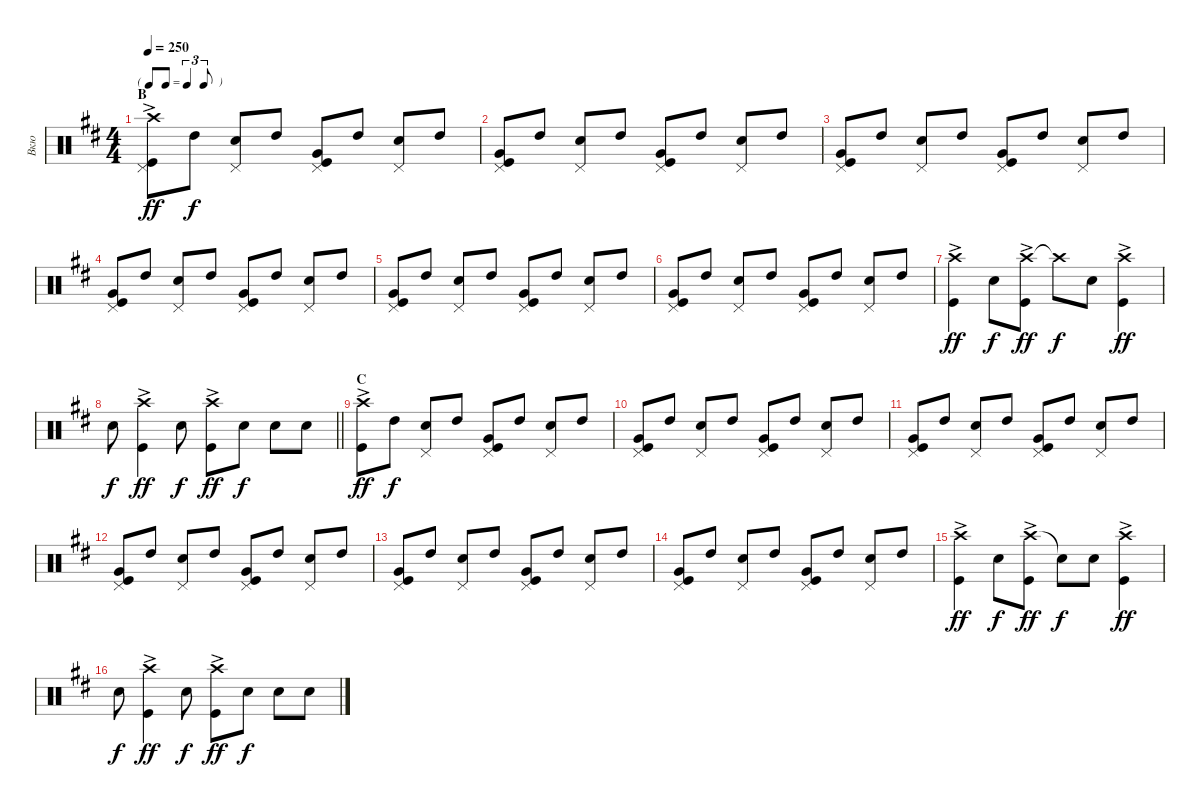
\track ("Вкю" "Вкю") {instrument percussion}
\staff {score}
\articulation defaults
\ts (4 4)
\tf triplet8th
\section ("" "B")
\tempo 250
\clef neutral
\ks d
("Crash high (hit)"{ac} "Kick (hit)"{ac} "Pedal Hi-Hat (hit)"{ac}).8{dy ff} "High Tom (hit)".8{dy f} ("Snare (hit) 2" "Pedal Hi-Hat (hit)").8 "High Tom (hit)".8 ("Very Low Tom (hit)" "Kick (hit)" "Pedal Hi-Hat (hit)").8 "High Tom (hit)".8 ("Snare (hit) 2" "Pedal Hi-Hat (hit)").8 "High Tom (hit)".8 |
("Very Low Tom (hit)" "Kick (hit)" "Pedal Hi-Hat (hit)").8 "High Tom (hit)".8 ("Snare (hit) 2" "Pedal Hi-Hat (hit)").8 "High Tom (hit)".8 ("Very Low Tom (hit)" "Kick (hit)" "Pedal Hi-Hat (hit)").8 "High Tom (hit)".8 ("Snare (hit) 2" "Pedal Hi-Hat (hit)").8 "High Tom (hit)".8 |
("Very Low Tom (hit)" "Kick (hit)" "Pedal Hi-Hat (hit)").8 "High Tom (hit)".8 ("Snare (hit) 2" "Pedal Hi-Hat (hit)").8 "High Tom (hit)".8 ("Very Low Tom (hit)" "Kick (hit)" "Pedal Hi-Hat (hit)").8 "High Tom (hit)".8 ("Snare (hit) 2" "Pedal Hi-Hat (hit)").8 "High Tom (hit)".8 |
("Very Low Tom (hit)" "Kick (hit)" "Pedal Hi-Hat (hit)").8 "High Tom (hit)".8 ("Snare (hit) 2" "Pedal Hi-Hat (hit)").8 "High Tom (hit)".8 ("Very Low Tom (hit)" "Kick (hit)" "Pedal Hi-Hat (hit)").8 "High Tom (hit)".8 ("Snare (hit) 2" "Pedal Hi-Hat (hit)").8 "High Tom (hit)".8 |
("Very Low Tom (hit)" "Kick (hit)" "Pedal Hi-Hat (hit)").8 "High Tom (hit)".8 ("Snare (hit) 2" "Pedal Hi-Hat (hit)").8 "High Tom (hit)".8 ("Very Low Tom (hit)" "Kick (hit)" "Pedal Hi-Hat (hit)").8 "High Tom (hit)".8 ("Snare (hit) 2" "Pedal Hi-Hat (hit)").8 "High Tom (hit)".8 |
("Very Low Tom (hit)" "Kick (hit)" "Pedal Hi-Hat (hit)").8 "High Tom (hit)".8 ("Snare (hit) 2" "Pedal Hi-Hat (hit)").8 "High Tom (hit)".8 ("Very Low Tom (hit)" "Kick (hit)" "Pedal Hi-Hat (hit)").8 "High Tom (hit)".8 ("Snare (hit) 2" "Pedal Hi-Hat (hit)").8 "High Tom (hit)".8 |
("Crash high (hit)"{ac} "Kick (hit)"{ac}).4{dy ff} "Snare (hit) 2".8{dy f} ("Crash high (hit)"{ac} "Kick (hit)").8{dy ff} "Crash high (hit)"{t}.8{dy f} "Snare (hit) 2".8 ("Crash high (hit)"{ac} "Kick (hit)"{ac}).4{dy ff} |
\barLineRight lightlight "Snare (hit) 2".8{dy f}
("Crash high (hit)"{ac} "Kick (hit)"{ac}).4{dy ff} "Snare (hit) 2".8{dy f} ("Crash high (hit)"{ac} "Kick (hit)"{ac}).8{dy ff} "Snare (hit) 2".8{dy f} "Snare (hit) 2".8 "Snare (hit) 2".8 |
\section ("" "C")
("Crash high (hit)"{ac} "Kick (hit)"{ac}).8{dy ff} "High Tom (hit)".8{dy f} ("Snare (hit) 2" "Pedal Hi-Hat (hit)").8 "High Tom (hit)".8 ("Very Low Tom (hit)" "Kick (hit)" "Pedal Hi-Hat (hit)").8 "High Tom (hit)".8 ("Snare (hit) 2" "Pedal Hi-Hat (hit)").8 "High Tom (hit)".8 |
("Very Low Tom (hit)" "Kick (hit)" "Pedal Hi-Hat (hit)").8 "High Tom (hit)".8 ("Snare (hit) 2" "Pedal Hi-Hat (hit)").8 "High Tom (hit)".8 ("Very Low Tom (hit)" "Kick (hit)" "Pedal Hi-Hat (hit)").8 "High Tom (hit)".8 ("Snare (hit) 2" "Pedal Hi-Hat (hit)").8 "High Tom (hit)".8 |
("Very Low Tom (hit)" "Kick (hit)" "Pedal Hi-Hat (hit)").8 "High Tom (hit)".8 ("Snare (hit) 2" "Pedal Hi-Hat (hit)").8 "High Tom (hit)".8 ("Very Low Tom (hit)" "Kick (hit)" "Pedal Hi-Hat (hit)").8 "High Tom (hit)".8 ("Snare (hit) 2" "Pedal Hi-Hat (hit)").8 "High Tom (hit)".8 |
("Very Low Tom (hit)" "Kick (hit)" "Pedal Hi-Hat (hit)").8 "High Tom (hit)".8 ("Snare (hit) 2" "Pedal Hi-Hat (hit)").8 "High Tom (hit)".8 ("Very Low Tom (hit)" "Kick (hit)" "Pedal Hi-Hat (hit)").8 "High Tom (hit)".8 ("Snare (hit) 2" "Pedal Hi-Hat (hit)").8 "High Tom (hit)".8 |
("Very Low Tom (hit)" "Kick (hit)" "Pedal Hi-Hat (hit)").8 "High Tom (hit)".8 ("Snare (hit) 2" "Pedal Hi-Hat (hit)").8 "High Tom (hit)".8 ("Very Low Tom (hit)" "Kick (hit)" "Pedal Hi-Hat (hit)").8 "High Tom (hit)".8 ("Snare (hit) 2" "Pedal Hi-Hat (hit)").8 "High Tom (hit)".8 |
("Very Low Tom (hit)" "Kick (hit)" "Pedal Hi-Hat (hit)").8 "High Tom (hit)".8 ("Snare (hit) 2" "Pedal Hi-Hat (hit)").8 "High Tom (hit)".8 ("Very Low Tom (hit)" "Kick (hit)" "Pedal Hi-Hat (hit)").8 "High Tom (hit)".8 ("Snare (hit) 2" "Pedal Hi-Hat (hit)").8 "High Tom (hit)".8 |
("Crash high (hit)"{ac} "Kick (hit)"{ac}).4{dy ff} "Snare (hit) 2".8{dy f} ("Crash high (hit)"{ac} "Kick (hit)"{ac}).8{dy ff} "Snare (hit)"{t}.8{dy f} "Snare (hit) 2".8 ("Crash high (hit)"{ac} "Kick (hit)"{ac}).4{dy ff} |
"Snare (hit) 2".8{dy f} ("Crash high (hit)"{ac} "Kick (hit)"{ac}).4{dy ff} "Snare (hit) 2".8{dy f} ("Crash high (hit)"{ac} "Kick (hit)"{ac}).8{dy ff} "Snare (hit) 2".8{dy f} "Snare (hit) 2".8 "Snare (hit) 2".8
